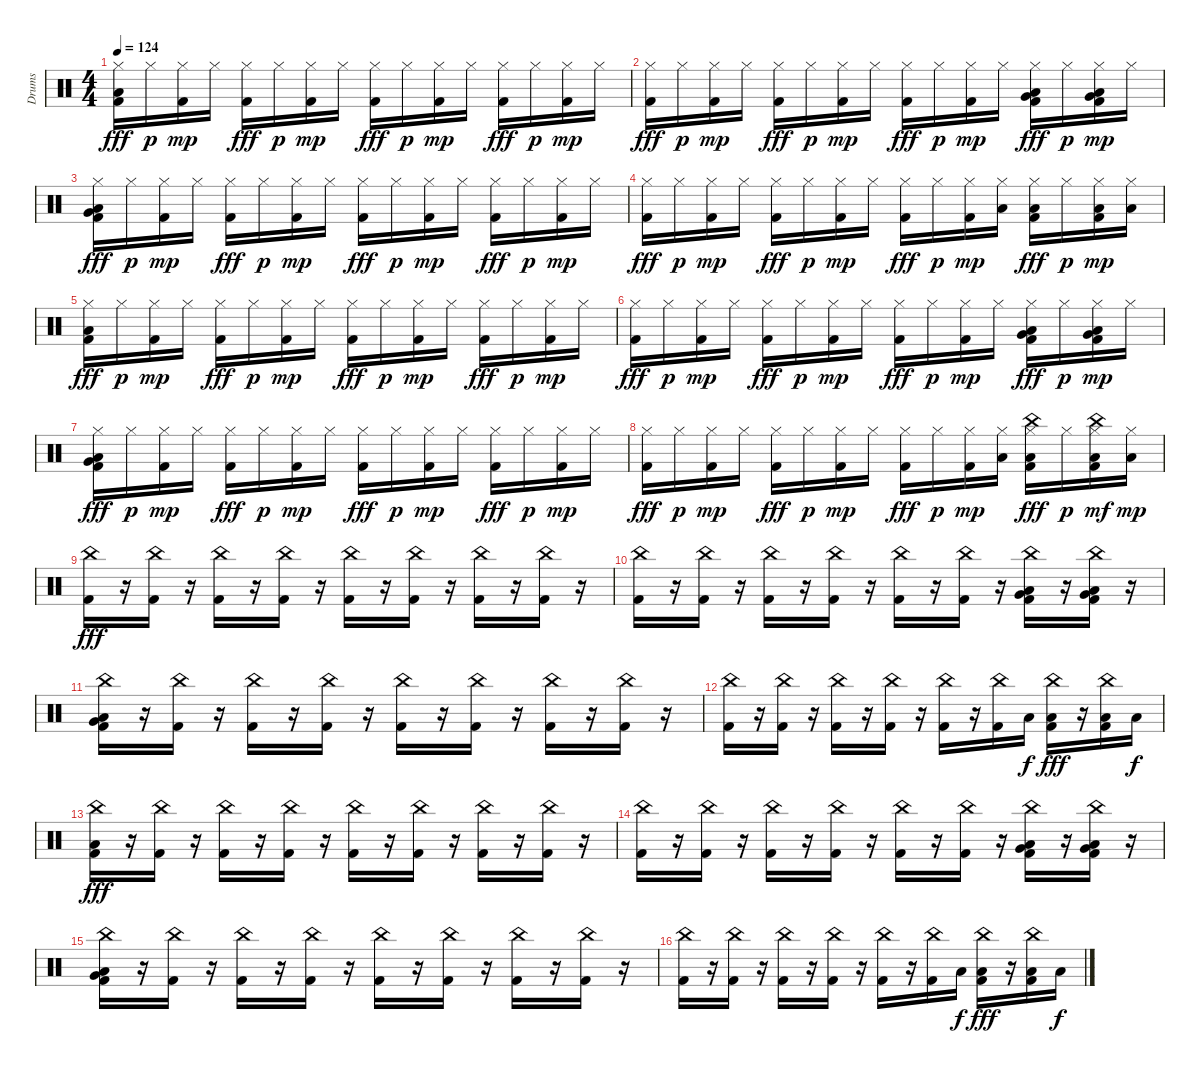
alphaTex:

\track ("Drums" "Drums") {instrument percussion}
\staff {score}
\articulation defaults
\ts (4 4)
\tempo 124
\clef neutral
\ks c
("Hi-Hat (closed)" "Low Tom (hit)" "Kick (hit) 2").16{dy fff volume 11} "Hi-Hat (closed)".16{dy p} ("Hi-Hat (closed)" "Kick (hit) 2").16{dy mp} "Hi-Hat (closed)".16 ("Hi-Hat (closed)" "Kick (hit) 2").16{dy fff} "Hi-Hat (closed)".16{dy p} ("Hi-Hat (closed)" "Kick (hit) 2").16{dy mp} "Hi-Hat (closed)".16 ("Hi-Hat (closed)" "Kick (hit) 2").16{dy fff} "Hi-Hat (closed)".16{dy p} ("Hi-Hat (closed)" "Kick (hit) 2").16{dy mp} "Hi-Hat (closed)".16 ("Hi-Hat (closed)" "Kick (hit) 2").16{dy fff} "Hi-Hat (closed)".16{dy p} ("Hi-Hat (closed)" "Kick (hit) 2").16{dy mp} "Hi-Hat (closed)".16 |
("Hi-Hat (closed)" "Kick (hit) 2").16{dy fff volume 11} "Hi-Hat (closed)".16{dy p} ("Hi-Hat (closed)" "Kick (hit) 2").16{dy mp} "Hi-Hat (closed)".16 ("Hi-Hat (closed)" "Kick (hit) 2").16{dy fff} "Hi-Hat (closed)".16{dy p} ("Hi-Hat (closed)" "Kick (hit) 2").16{dy mp} "Hi-Hat (closed)".16 ("Hi-Hat (closed)" "Kick (hit) 2").16{dy fff} "Hi-Hat (closed)".16{dy p} ("Hi-Hat (closed)" "Kick (hit) 2").16{dy mp} "Hi-Hat (closed)".16 ("Hi-Hat (closed)" "Very Low Tom (hit)" "Low Tom (hit)" "Kick (hit) 2").16{dy fff} "Hi-Hat (closed)".16{dy p} ("Hi-Hat (closed)" "Very Low Tom (hit)" "Low Tom (hit)" "Kick (hit) 2").16{dy mp} "Hi-Hat (closed)".16 |
("Hi-Hat (closed)" "Very Low Tom (hit)" "Low Tom (hit)" "Kick (hit) 2").16{dy fff volume 11} "Hi-Hat (closed)".16{dy p} ("Hi-Hat (closed)" "Kick (hit) 2").16{dy mp} "Hi-Hat (closed)".16 ("Hi-Hat (closed)" "Kick (hit) 2").16{dy fff} "Hi-Hat (closed)".16{dy p} ("Hi-Hat (closed)" "Kick (hit) 2").16{dy mp} "Hi-Hat (closed)".16 ("Hi-Hat (closed)" "Kick (hit) 2").16{dy fff} "Hi-Hat (closed)".16{dy p} ("Hi-Hat (closed)" "Kick (hit) 2").16{dy mp} "Hi-Hat (closed)".16 ("Hi-Hat (closed)" "Kick (hit) 2").16{dy fff} "Hi-Hat (closed)".16{dy p} ("Hi-Hat (closed)" "Kick (hit) 2").16{dy mp} "Hi-Hat (closed)".16 |
("Hi-Hat (closed)" "Kick (hit) 2").16{dy fff volume 11} "Hi-Hat (closed)".16{dy p} ("Hi-Hat (closed)" "Kick (hit) 2").16{dy mp} "Hi-Hat (closed)".16 ("Hi-Hat (closed)" "Kick (hit) 2").16{dy fff} "Hi-Hat (closed)".16{dy p} ("Hi-Hat (closed)" "Kick (hit) 2").16{dy mp} "Hi-Hat (closed)".16 ("Hi-Hat (closed)" "Kick (hit) 2").16{dy fff} "Hi-Hat (closed)".16{dy p} ("Hi-Hat (closed)" "Kick (hit) 2").16{dy mp} ("Hi-Hat (closed)" "Low Tom (hit)").16 ("Hi-Hat (closed)" "Low Tom (hit)" "Kick (hit) 2").16{dy fff} "Hi-Hat (closed)".16{dy p} ("Hi-Hat (closed)" "Low Tom (hit)" "Kick (hit) 2").16{dy mp} ("Hi-Hat (closed)" "Low Tom (hit)").16 |
("Hi-Hat (closed)" "Low Tom (hit)" "Kick (hit) 2").16{dy fff volume 11} "Hi-Hat (closed)".16{dy p} ("Hi-Hat (closed)" "Kick (hit) 2").16{dy mp} "Hi-Hat (closed)".16 ("Hi-Hat (closed)" "Kick (hit) 2").16{dy fff} "Hi-Hat (closed)".16{dy p} ("Hi-Hat (closed)" "Kick (hit) 2").16{dy mp} "Hi-Hat (closed)".16 ("Hi-Hat (closed)" "Kick (hit) 2").16{dy fff} "Hi-Hat (closed)".16{dy p} ("Hi-Hat (closed)" "Kick (hit) 2").16{dy mp} "Hi-Hat (closed)".16 ("Hi-Hat (closed)" "Kick (hit) 2").16{dy fff} "Hi-Hat (closed)".16{dy p} ("Hi-Hat (closed)" "Kick (hit) 2").16{dy mp} "Hi-Hat (closed)".16 |
("Hi-Hat (closed)" "Kick (hit) 2").16{dy fff volume 11} "Hi-Hat (closed)".16{dy p} ("Hi-Hat (closed)" "Kick (hit) 2").16{dy mp} "Hi-Hat (closed)".16 ("Hi-Hat (closed)" "Kick (hit) 2").16{dy fff} "Hi-Hat (closed)".16{dy p} ("Hi-Hat (closed)" "Kick (hit) 2").16{dy mp} "Hi-Hat (closed)".16 ("Hi-Hat (closed)" "Kick (hit) 2").16{dy fff} "Hi-Hat (closed)".16{dy p} ("Hi-Hat (closed)" "Kick (hit) 2").16{dy mp} "Hi-Hat (closed)".16 ("Hi-Hat (closed)" "Very Low Tom (hit)" "Low Tom (hit)" "Kick (hit) 2").16{dy fff} "Hi-Hat (closed)".16{dy p} ("Hi-Hat (closed)" "Very Low Tom (hit)" "Low Tom (hit)" "Kick (hit) 2").16{dy mp} "Hi-Hat (closed)".16 |
("Hi-Hat (closed)" "Very Low Tom (hit)" "Low Tom (hit)" "Kick (hit) 2").16{dy fff volume 11} "Hi-Hat (closed)".16{dy p} ("Hi-Hat (closed)" "Kick (hit) 2").16{dy mp} "Hi-Hat (closed)".16 ("Hi-Hat (closed)" "Kick (hit) 2").16{dy fff} "Hi-Hat (closed)".16{dy p} ("Hi-Hat (closed)" "Kick (hit) 2").16{dy mp} "Hi-Hat (closed)".16 ("Hi-Hat (closed)" "Kick (hit) 2").16{dy fff} "Hi-Hat (closed)".16{dy p} ("Hi-Hat (closed)" "Kick (hit) 2").16{dy mp} "Hi-Hat (closed)".16 ("Hi-Hat (closed)" "Kick (hit) 2").16{dy fff} "Hi-Hat (closed)".16{dy p} ("Hi-Hat (closed)" "Kick (hit) 2").16{dy mp} "Hi-Hat (closed)".16 |
("Hi-Hat (closed)" "Kick (hit) 2").16{dy fff volume 11} "Hi-Hat (closed)".16{dy p} ("Hi-Hat (closed)" "Kick (hit) 2").16{dy mp} "Hi-Hat (closed)".16 ("Hi-Hat (closed)" "Kick (hit) 2").16{dy fff} "Hi-Hat (closed)".16{dy p} ("Hi-Hat (closed)" "Kick (hit) 2").16{dy mp} "Hi-Hat (closed)".16 ("Hi-Hat (closed)" "Kick (hit) 2").16{dy fff} "Hi-Hat (closed)".16{dy p} ("Hi-Hat (closed)" "Kick (hit) 2").16{dy mp} ("Hi-Hat (closed)" "Low Tom (hit)").16 ("Hi-Hat (closed)" "China (hit)" "Low Tom (hit)" "Kick (hit) 2").16{dy fff} "Hi-Hat (closed)".16{dy p} ("Hi-Hat (closed)" "China (hit)" "Low Tom (hit)" "Kick (hit) 2").16{dy mf} ("Hi-Hat (closed)" "Low Tom (hit)").16{dy mp} |
("China (hit)" "Kick (hit) 2").16{dy fff volume 11} r.16 ("China (hit)" "Kick (hit) 2").16 r.16 ("China (hit)" "Kick (hit) 2").16 r.16 ("China (hit)" "Kick (hit) 2").16 r.16 ("China (hit)" "Kick (hit) 2").16 r.16 ("China (hit)" "Kick (hit) 2").16 r.16 ("China (hit)" "Kick (hit) 2").16 r.16 ("China (hit)" "Kick (hit) 2").16 r.16 |
("China (hit)" "Kick (hit) 2").16{volume 11} r.16 ("China (hit)" "Kick (hit) 2").16 r.16 ("China (hit)" "Kick (hit) 2").16 r.16 ("China (hit)" "Kick (hit) 2").16 r.16 ("China (hit)" "Kick (hit) 2").16 r.16 ("China (hit)" "Kick (hit) 2").16 r.16 ("China (hit)" "Very Low Tom (hit)" "Low Tom (hit)" "Kick (hit) 2").16 r.16 ("China (hit)" "Very Low Tom (hit)" "Low Tom (hit)" "Kick (hit) 2").16 r.16 |
("China (hit)" "Very Low Tom (hit)" "Low Tom (hit)" "Kick (hit) 2").16{volume 11} r.16 ("China (hit)" "Kick (hit) 2").16 r.16 ("China (hit)" "Kick (hit) 2").16 r.16 ("China (hit)" "Kick (hit) 2").16 r.16 ("China (hit)" "Kick (hit) 2").16 r.16 ("China (hit)" "Kick (hit) 2").16 r.16 ("China (hit)" "Kick (hit) 2").16 r.16 ("China (hit)" "Kick (hit) 2").16 r.16 |
("China (hit)" "Kick (hit) 2").16{volume 11} r.16 ("China (hit)" "Kick (hit) 2").16 r.16 ("China (hit)" "Kick (hit) 2").16 r.16 ("China (hit)" "Kick (hit) 2").16 r.16 ("China (hit)" "Kick (hit) 2").16 r.16 ("China (hit)" "Kick (hit) 2").16 "Low Tom (hit)".16{dy f} ("China (hit)" "Low Tom (hit)" "Kick (hit) 2").16{dy fff} r.16 ("China (hit)" "Low Tom (hit)" "Kick (hit) 2").16 "Low Tom (hit)".16{dy f} |
("China (hit)" "Low Tom (hit)" "Kick (hit) 2").16{dy fff volume 11} r.16 ("China (hit)" "Kick (hit) 2").16 r.16 ("China (hit)" "Kick (hit) 2").16 r.16 ("China (hit)" "Kick (hit) 2").16 r.16 ("China (hit)" "Kick (hit) 2").16 r.16 ("China (hit)" "Kick (hit) 2").16 r.16 ("China (hit)" "Kick (hit) 2").16 r.16 ("China (hit)" "Kick (hit) 2").16 r.16 |
("China (hit)" "Kick (hit) 2").16{volume 11} r.16 ("China (hit)" "Kick (hit) 2").16 r.16 ("China (hit)" "Kick (hit) 2").16 r.16 ("China (hit)" "Kick (hit) 2").16 r.16 ("China (hit)" "Kick (hit) 2").16 r.16 ("China (hit)" "Kick (hit) 2").16 r.16 ("China (hit)" "Very Low Tom (hit)" "Low Tom (hit)" "Kick (hit) 2").16 r.16 ("China (hit)" "Very Low Tom (hit)" "Low Tom (hit)" "Kick (hit) 2").16 r.16 |
("China (hit)" "Very Low Tom (hit)" "Low Tom (hit)" "Kick (hit) 2").16{volume 11} r.16 ("China (hit)" "Kick (hit) 2").16 r.16 ("China (hit)" "Kick (hit) 2").16 r.16 ("China (hit)" "Kick (hit) 2").16 r.16 ("China (hit)" "Kick (hit) 2").16 r.16 ("China (hit)" "Kick (hit) 2").16 r.16 ("China (hit)" "Kick (hit) 2").16 r.16 ("China (hit)" "Kick (hit) 2").16 r.16 |
("China (hit)" "Kick (hit) 2").16{volume 11} r.16 ("China (hit)" "Kick (hit) 2").16 r.16 ("China (hit)" "Kick (hit) 2").16 r.16 ("China (hit)" "Kick (hit) 2").16 r.16 ("China (hit)" "Kick (hit) 2").16 r.16 ("China (hit)" "Kick (hit) 2").16 "Low Tom (hit)".16{dy f} ("China (hit)" "Low Tom (hit)" "Kick (hit) 2").16{dy fff} r.16 ("China (hit)" "Low Tom (hit)" "Kick (hit) 2").16 "Low Tom (hit)".16{dy f}
